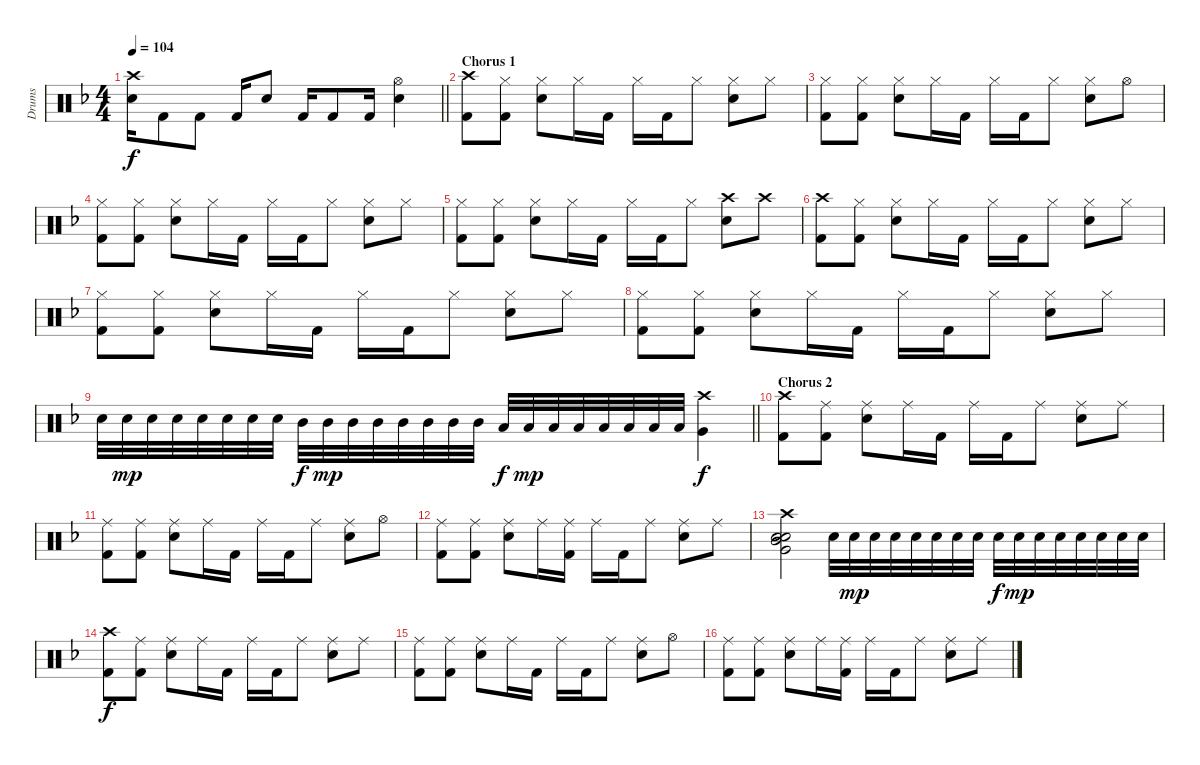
\track ("Drums" "Drums") {instrument percussion}
\staff {score}
\articulation defaults
\ts (4 4)
\tempo 104
\clef neutral
\barLineRight lightlight
\ks dminor
("Crash high (hit)" "Electric Snare (hit)").16{dy f} "Kick (hit) 2".8 "Kick (hit) 2".8 "Kick (hit) 2".16 "Electric Snare (hit)".8 "Kick (hit) 2".16 "Kick (hit) 2".8 "Kick (hit) 2".16 ("Electric Snare (hit)" "Hi-Hat (open)").4 |
\section ("" "Chorus 1")
("Crash high (hit)" "Kick (hit) 2").8 ("Hi-Hat (closed)" "Kick (hit) 2").8 ("Hi-Hat (closed)" "Electric Snare (hit)").8 "Hi-Hat (closed)".16 "Kick (hit) 2".16 "Hi-Hat (closed)".16 "Kick (hit) 2".16 "Hi-Hat (closed)".8 ("Hi-Hat (closed)" "Electric Snare (hit)").8 "Hi-Hat (closed)".8 |
("Hi-Hat (closed)" "Kick (hit) 2").8 ("Hi-Hat (closed)" "Kick (hit) 2").8 ("Hi-Hat (closed)" "Electric Snare (hit)").8 "Hi-Hat (closed)".16 "Kick (hit) 2".16 "Hi-Hat (closed)".16 "Kick (hit) 2".16 "Hi-Hat (closed)".8 ("Hi-Hat (closed)" "Electric Snare (hit)").8 "Hi-Hat (open)".8 |
("Hi-Hat (closed)" "Kick (hit) 2").8 ("Hi-Hat (closed)" "Kick (hit) 2").8 ("Hi-Hat (closed)" "Electric Snare (hit)").8 "Hi-Hat (closed)".16 "Kick (hit) 2".16 "Hi-Hat (closed)".16 "Kick (hit) 2".16 "Hi-Hat (closed)".8 ("Hi-Hat (closed)" "Electric Snare (hit)").8 "Hi-Hat (closed)".8 |
("Hi-Hat (closed)" "Kick (hit) 2").8 ("Hi-Hat (closed)" "Kick (hit) 2").8 ("Hi-Hat (closed)" "Electric Snare (hit)").8 "Hi-Hat (closed)".16 "Kick (hit) 2".16 "Hi-Hat (closed)".16 "Kick (hit) 2".16 "Hi-Hat (closed)".8 ("Crash high (hit)" "Electric Snare (hit)").8 "Crash high (hit)".8 |
("Crash high (hit)" "Kick (hit) 2").8 ("Hi-Hat (closed)" "Kick (hit) 2").8 ("Hi-Hat (closed)" "Electric Snare (hit)").8 "Hi-Hat (closed)".16 "Kick (hit) 2".16 "Hi-Hat (closed)".16 "Kick (hit) 2".16 "Hi-Hat (closed)".8 ("Hi-Hat (closed)" "Electric Snare (hit)").8 "Hi-Hat (closed)".8 |
("Hi-Hat (closed)" "Kick (hit) 2").8 ("Hi-Hat (closed)" "Kick (hit) 2").8 ("Hi-Hat (closed)" "Electric Snare (hit)").8 "Hi-Hat (closed)".16 "Kick (hit) 2".16 "Hi-Hat (closed)".16 "Kick (hit) 2".16 "Hi-Hat (closed)".8 ("Hi-Hat (closed)" "Electric Snare (hit)").8 "Hi-Hat (closed)".8 |
("Hi-Hat (closed)" "Kick (hit) 2").8 ("Hi-Hat (closed)" "Kick (hit) 2").8 ("Hi-Hat (closed)" "Electric Snare (hit)").8 "Hi-Hat (closed)".16 "Kick (hit) 2".16 "Hi-Hat (closed)".16 "Kick (hit) 2".16 "Hi-Hat (closed)".8 ("Hi-Hat (closed)" "Electric Snare (hit)").8 "Hi-Hat (closed)".8 |
\barLineRight lightlight "Electric Snare (hit)".32 "Electric Snare (hit)".32{dy mp} "Electric Snare (hit)".32 "Electric Snare (hit)".32 "Electric Snare (hit)".32 "Electric Snare (hit)".32 "Electric Snare (hit)".32 "Electric Snare (hit)".32 "Mid Tom (hit)".32{dy f} "Mid Tom (hit)".32{dy mp} "Mid Tom (hit)".32 "Mid Tom (hit)".32 "Mid Tom (hit)".32 "Mid Tom (hit)".32 "Mid Tom (hit)".32 "Mid Tom (hit)".32 "Low Tom (hit)".32{dy f} "Low Tom (hit)".32{dy mp} "Low Tom (hit)".32 "Low Tom (hit)".32 "Low Tom (hit)".32 "Low Tom (hit)".32 "Low Tom (hit)".32 "Low Tom (hit)".32
("Very Low Tom (hit)" "Crash high (hit)").4{dy f} |
\section ("" "Chorus 2")
("Crash high (hit)" "Kick (hit) 2").8 ("Ride (middle)" "Kick (hit) 2").8 ("Ride (middle)" "Electric Snare (hit)").8 "Ride (middle)".16 "Kick (hit) 2".16 "Ride (middle)".16 "Kick (hit) 2".16 "Ride (middle)".8 ("Ride (middle)" "Electric Snare (hit)").8 "Ride (middle)".8 |
("Ride (middle)" "Kick (hit) 2").8 ("Ride (middle)" "Kick (hit) 2").8 ("Ride (middle)" "Electric Snare (hit)").8 "Ride (middle)".16 "Kick (hit) 2".16 "Ride (middle)".16 "Kick (hit) 2".16 "Ride (middle)".8 ("Ride (middle)" "Electric Snare (hit)").8 "Hi-Hat (open)".8 |
("Ride (middle)" "Kick (hit) 2").8 ("Ride (middle)" "Kick (hit) 2").8 ("Ride (middle)" "Electric Snare (hit)").8 "Ride (middle)".16 ("Ride (middle)" "Kick (hit) 2").16 "Ride (middle)".16 "Kick (hit) 2".16 "Ride (middle)".8 ("Ride (middle)" "Electric Snare (hit)").8 "Ride (middle)".8 |
("Mid Tom (hit)" "Crash high (hit)" "Snare (hit) 2" "Very Low Tom (hit)" "Electric Snare (hit)").2 "Electric Snare (hit)".32 "Electric Snare (hit)".32{dy mp} "Electric Snare (hit)".32 "Electric Snare (hit)".32 "Electric Snare (hit)".32 "Electric Snare (hit)".32 "Electric Snare (hit)".32 "Electric Snare (hit)".32 "Electric Snare (hit)".32{dy f} "Electric Snare (hit)".32{dy mp} "Electric Snare (hit)".32 "Electric Snare (hit)".32 "Electric Snare (hit)".32 "Electric Snare (hit)".32 "Electric Snare (hit)".32 "Electric Snare (hit)".32 |
("Crash high (hit)" "Kick (hit) 2").8{dy f} ("Ride (middle)" "Kick (hit) 2").8 ("Ride (middle)" "Electric Snare (hit)").8 "Ride (middle)".16 "Kick (hit) 2".16 "Ride (middle)".16 "Kick (hit) 2".16 "Ride (middle)".8 ("Ride (middle)" "Electric Snare (hit)").8 "Ride (middle)".8 |
("Ride (middle)" "Kick (hit) 2").8 ("Ride (middle)" "Kick (hit) 2").8 ("Ride (middle)" "Electric Snare (hit)").8 "Ride (middle)".16 "Kick (hit) 2".16 "Ride (middle)".16 "Kick (hit) 2".16 "Ride (middle)".8 ("Ride (middle)" "Electric Snare (hit)").8 "Hi-Hat (open)".8 |
("Ride (middle)" "Kick (hit) 2").8 ("Ride (middle)" "Kick (hit) 2").8 ("Ride (middle)" "Electric Snare (hit)").8 "Ride (middle)".16 ("Ride (middle)" "Kick (hit) 2").16 "Ride (middle)".16 "Kick (hit) 2".16 "Ride (middle)".8 ("Ride (middle)" "Electric Snare (hit)").8 "Ride (middle)".8
